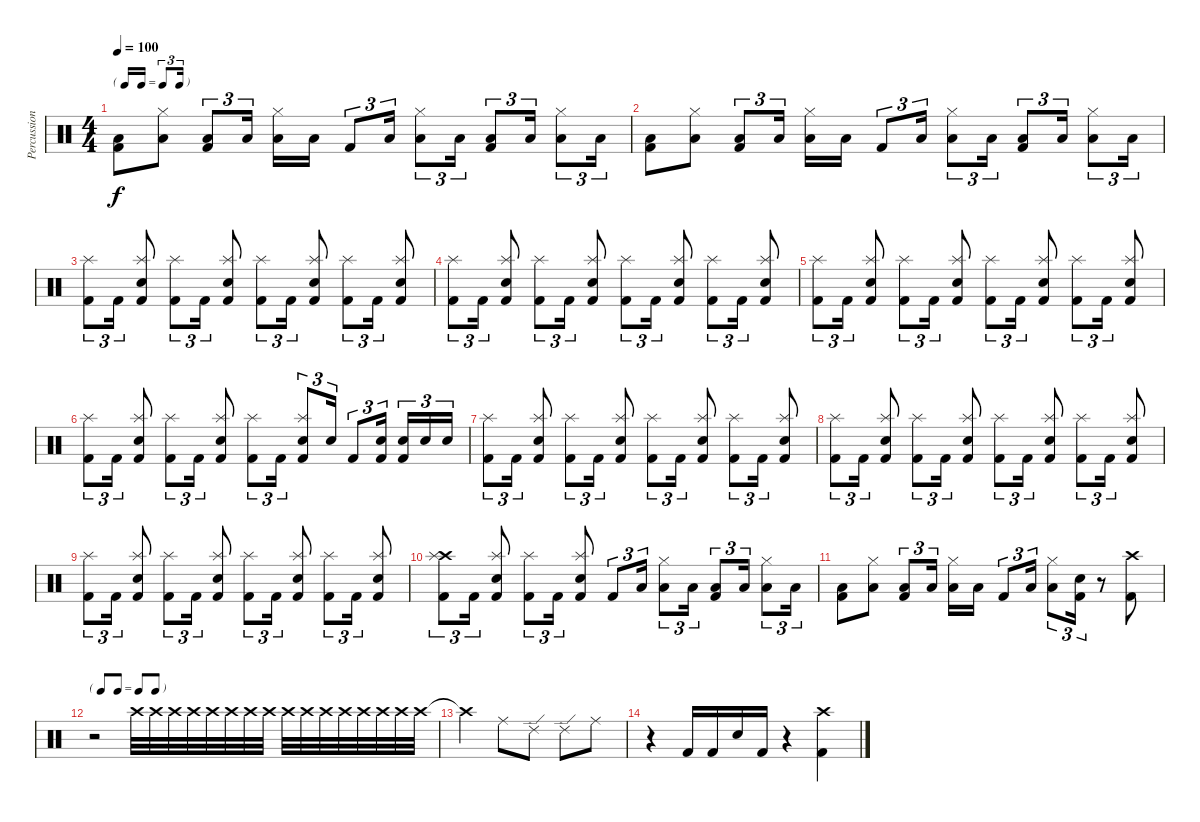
\track ("Percussion" "Percussion") {instrument percussion}
\staff {score}
\articulation defaults
\ts (4 4)
\tf triplet16th
\tempo 100
\clef neutral
\ks c
("Low Floor Tom (hit)" "Kick (hit) 2").8{dy f} ("Hi-Hat (closed)" "Low Floor Tom (hit)").8 ("Low Floor Tom (hit)" "Kick (hit) 2").8{tu (3 2)} "Low Floor Tom (hit)".16{tu (3 2) beam splitsecondary} ("Hi-Hat (closed)" "Low Floor Tom (hit)").16 "Low Tom (hit)".16 "Kick (hit) 2".8{tu (3 2)} "Low Tom (hit)".16{tu (3 2)} ("Hi-Hat (closed)" "Low Floor Tom (hit)").8{tu (3 2)} "Low Floor Tom (hit)".16{tu (3 2)} ("Low Floor Tom (hit)" "Kick (hit) 2").8{tu (3 2)} "Low Floor Tom (hit)".16{tu (3 2)} ("Hi-Hat (closed)" "Low Tom (hit)").8{tu (3 2)} "Low Floor Tom (hit)".16{tu (3 2)} |
("Low Floor Tom (hit)" "Kick (hit) 2").8 ("Hi-Hat (closed)" "Low Floor Tom (hit)").8 ("Low Floor Tom (hit)" "Kick (hit) 2").8{tu (3 2)} "Low Floor Tom (hit)".16{tu (3 2) beam splitsecondary} ("Hi-Hat (closed)" "Low Floor Tom (hit)").16 "Low Tom (hit)".16 "Kick (hit) 2".8{tu (3 2)} "Low Tom (hit)".16{tu (3 2)} ("Hi-Hat (closed)" "Low Floor Tom (hit)").8{tu (3 2)} "Low Floor Tom (hit)".16{tu (3 2)} ("Low Floor Tom (hit)" "Kick (hit) 2").8{tu (3 2)} "Low Floor Tom (hit)".16{tu (3 2)} ("Hi-Hat (closed)" "Low Tom (hit)").8{tu (3 2)} "Low Floor Tom (hit)".16{tu (3 2)} |
("Splash (hit)" "Kick (hit) 2").8{tu (3 2)} "Kick (hit) 2".16{tu (3 2)} ("Splash (hit)" "Electric Snare (hit)" "Kick (hit) 2").8 ("Splash (hit)" "Kick (hit) 2").8{tu (3 2)} "Kick (hit) 2".16{tu (3 2)} ("Splash (hit)" "Electric Snare (hit)" "Kick (hit) 2").8 ("Splash (hit)" "Kick (hit) 2").8{tu (3 2)} "Kick (hit) 2".16{tu (3 2)} ("Splash (hit)" "Electric Snare (hit)" "Kick (hit) 2").8 ("Splash (hit)" "Kick (hit) 2").8{tu (3 2)} "Kick (hit) 2".16{tu (3 2)} ("Splash (hit)" "Electric Snare (hit)" "Kick (hit) 2").8 |
("Splash (hit)" "Kick (hit) 2").8{tu (3 2)} "Kick (hit) 2".16{tu (3 2)} ("Splash (hit)" "Electric Snare (hit)" "Kick (hit) 2").8 ("Splash (hit)" "Kick (hit) 2").8{tu (3 2)} "Kick (hit) 2".16{tu (3 2)} ("Splash (hit)" "Electric Snare (hit)" "Kick (hit) 2").8 ("Splash (hit)" "Kick (hit) 2").8{tu (3 2)} "Kick (hit) 2".16{tu (3 2)} ("Splash (hit)" "Electric Snare (hit)" "Kick (hit) 2").8 ("Splash (hit)" "Kick (hit) 2").8{tu (3 2)} "Kick (hit) 2".16{tu (3 2)} ("Splash (hit)" "Electric Snare (hit)" "Kick (hit) 2").8 |
("Splash (hit)" "Kick (hit) 2").8{tu (3 2)} "Kick (hit) 2".16{tu (3 2)} ("Splash (hit)" "Electric Snare (hit)" "Kick (hit) 2").8 ("Splash (hit)" "Kick (hit) 2").8{tu (3 2)} "Kick (hit) 2".16{tu (3 2)} ("Splash (hit)" "Electric Snare (hit)" "Kick (hit) 2").8 ("Splash (hit)" "Kick (hit) 2").8{tu (3 2)} "Kick (hit) 2".16{tu (3 2)} ("Splash (hit)" "Electric Snare (hit)" "Kick (hit) 2").8 ("Splash (hit)" "Kick (hit) 2").8{tu (3 2)} "Kick (hit) 2".16{tu (3 2)} ("Splash (hit)" "Electric Snare (hit)" "Kick (hit) 2").8 |
("Splash (hit)" "Kick (hit) 2").8{tu (3 2)} "Kick (hit) 2".16{tu (3 2)} ("Splash (hit)" "Electric Snare (hit)" "Kick (hit) 2").8 ("Splash (hit)" "Kick (hit) 2").8{tu (3 2)} "Kick (hit) 2".16{tu (3 2)} ("Splash (hit)" "Electric Snare (hit)" "Kick (hit) 2").8 ("Splash (hit)" "Kick (hit) 2").8{tu (3 2)} "Kick (hit) 2".16{tu (3 2)} ("Splash (hit)" "Electric Snare (hit)" "Kick (hit) 2").8{tu (3 2)} "Electric Snare (hit)".16{tu (3 2)} "Kick (hit) 2".8{tu (3 2)} ("Electric Snare (hit)" "Kick (hit) 2").16{tu (3 2) beam splitsecondary} ("Electric Snare (hit)" "Kick (hit) 2").16{tu (3 2)} "Electric Snare (hit)".16{tu (3 2)} "Electric Snare (hit)".16{tu (3 2)} |
("Splash (hit)" "Kick (hit) 2").8{tu (3 2)} "Kick (hit) 2".16{tu (3 2)} ("Splash (hit)" "Electric Snare (hit)" "Kick (hit) 2").8 ("Splash (hit)" "Kick (hit) 2").8{tu (3 2)} "Kick (hit) 2".16{tu (3 2)} ("Splash (hit)" "Electric Snare (hit)" "Kick (hit) 2").8 ("Splash (hit)" "Kick (hit) 2").8{tu (3 2)} "Kick (hit) 2".16{tu (3 2)} ("Splash (hit)" "Electric Snare (hit)" "Kick (hit) 2").8 ("Splash (hit)" "Kick (hit) 2").8{tu (3 2)} "Kick (hit) 2".16{tu (3 2)} ("Splash (hit)" "Electric Snare (hit)" "Kick (hit) 2").8 |
("Splash (hit)" "Kick (hit) 2").8{tu (3 2)} "Kick (hit) 2".16{tu (3 2)} ("Splash (hit)" "Electric Snare (hit)" "Kick (hit) 2").8 ("Splash (hit)" "Kick (hit) 2").8{tu (3 2)} "Kick (hit) 2".16{tu (3 2)} ("Splash (hit)" "Electric Snare (hit)" "Kick (hit) 2").8 ("Splash (hit)" "Kick (hit) 2").8{tu (3 2)} "Kick (hit) 2".16{tu (3 2)} ("Splash (hit)" "Electric Snare (hit)" "Kick (hit) 2").8 ("Splash (hit)" "Kick (hit) 2").8{tu (3 2)} "Kick (hit) 2".16{tu (3 2)} ("Splash (hit)" "Electric Snare (hit)" "Kick (hit) 2").8 |
("Splash (hit)" "Kick (hit) 2").8{tu (3 2)} "Kick (hit) 2".16{tu (3 2)} ("Splash (hit)" "Electric Snare (hit)" "Kick (hit) 2").8 ("Splash (hit)" "Kick (hit) 2").8{tu (3 2)} "Kick (hit) 2".16{tu (3 2)} ("Splash (hit)" "Electric Snare (hit)" "Kick (hit) 2").8 ("Splash (hit)" "Kick (hit) 2").8{tu (3 2)} "Kick (hit) 2".16{tu (3 2)} ("Splash (hit)" "Electric Snare (hit)" "Kick (hit) 2").8 ("Splash (hit)" "Kick (hit) 2").8{tu (3 2)} "Kick (hit) 2".16{tu (3 2)} ("Splash (hit)" "Electric Snare (hit)" "Kick (hit) 2").8 |
("Crash high (hit)" "Splash (hit)" "Kick (hit) 2").8{tu (3 2)} "Kick (hit) 2".16{tu (3 2)} ("Splash (hit)" "Electric Snare (hit)" "Kick (hit) 2").8 ("Splash (hit)" "Kick (hit) 2").8{tu (3 2)} "Kick (hit) 2".16{tu (3 2)} ("Splash (hit)" "Electric Snare (hit)" "Kick (hit) 2").8 "Kick (hit) 2".8{tu (3 2)} "Low Tom (hit)".16{tu (3 2)} ("Hi-Hat (closed)" "Low Floor Tom (hit)").8{tu (3 2)} "Low Floor Tom (hit)".16{tu (3 2)} ("Low Floor Tom (hit)" "Kick (hit) 2").8{tu (3 2)} "Low Floor Tom (hit)".16{tu (3 2)} ("Hi-Hat (closed)" "Low Tom (hit)").8{tu (3 2)} "Low Floor Tom (hit)".16{tu (3 2)} |
("Low Floor Tom (hit)" "Kick (hit) 2").8 ("Hi-Hat (closed)" "Low Floor Tom (hit)").8 ("Low Floor Tom (hit)" "Kick (hit) 2").8{tu (3 2)} "Low Floor Tom (hit)".16{tu (3 2) beam splitsecondary} ("Hi-Hat (closed)" "Low Floor Tom (hit)").16 "Low Tom (hit)".16 "Kick (hit) 2".8{tu (3 2)} "Low Tom (hit)".16{tu (3 2)} ("Hi-Hat (closed)" "Low Floor Tom (hit)").8{tu (3 2)} ("Electric Snare (hit)" "Kick (hit) 2").16{tu (3 2)} r.8 ("Crash high (hit)" "Kick (hit) 2").8 |
\tf none
r.2 "Crash high (hit)".32{volume 4} "Crash high (hit)".32{volume 13} "Crash high (hit)".32 "Crash high (hit)".32 "Crash high (hit)".32 "Crash high (hit)".32 "Crash high (hit)".32 "Crash high (hit)".32 "Crash high (hit)".32{volume 5} "Crash high (hit)".32 "Crash high (hit)".32 "Crash high (hit)".32 "Crash high (hit)".32 "Crash high (hit)".32 "Crash high (hit)".32 "Crash high (hit)".32 |
"Crash high (hit)"{t}.4 "Ride (middle)".8{volume 13} "Ride (edge) 2".8 "Ride (edge) 2".8 "Ride (middle)".8 |
r.4 "Kick (hit) 2".16 "Kick (hit) 2".16 "Electric Snare (hit)".16 "Kick (hit) 2".16 r.4 ("Crash high (hit)" "Kick (hit) 2").4
